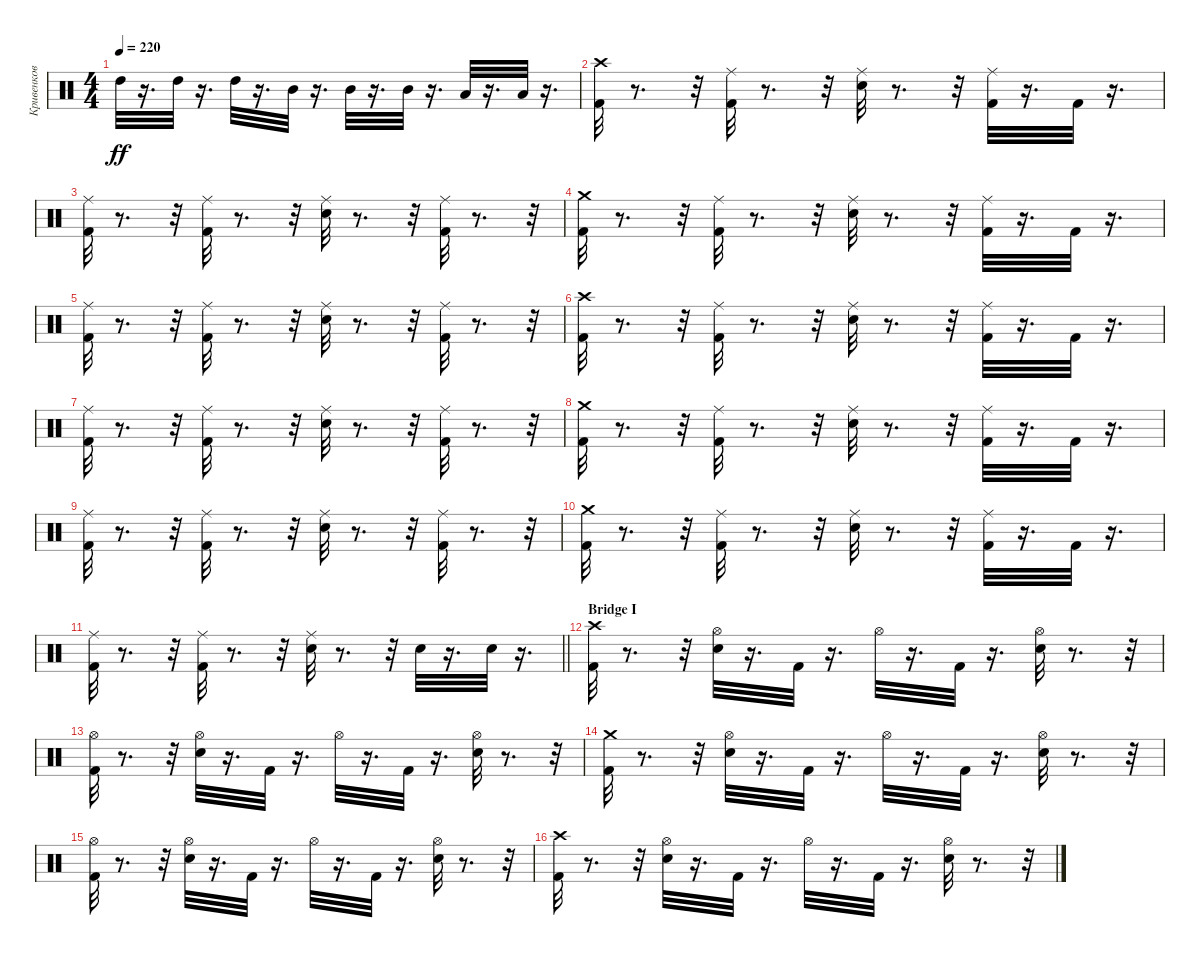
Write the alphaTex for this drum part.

\track ("Кривенков" "Кривенков") {instrument percussion}
\staff {score}
\articulation defaults
\ts (4 4)
\tempo 220
\clef neutral
\ks c "High Tom (hit)".32{dy ff}
r.16{d} "High Tom (hit)".32 r.16{d} "High Tom (hit)".32 r.16{d} "Mid Tom (hit)".32 r.16{d} "Mid Tom (hit)".32 r.16{d} "Mid Tom (hit)".32 r.16{d} "Low Tom (hit)".32 r.16{d} "Low Tom (hit)".32 r.16{d} |
("Crash high (hit)" "Kick (hit) 2").32 r.8{d} r.32 ("Ride (middle)" "Kick (hit) 2").32 r.8{d} r.32 ("Ride (middle)" "Electric Snare (hit)").32 r.8{d} r.32 ("Ride (middle)" "Kick (hit) 2").32 r.16{d} "Kick (hit) 2".32 r.16{d} |
("Ride (middle)" "Kick (hit) 2").32 r.8{d} r.32 ("Ride (middle)" "Kick (hit) 2").32 r.8{d} r.32 ("Ride (middle)" "Electric Snare (hit)").32 r.8{d} r.32 ("Ride (middle)" "Kick (hit) 2").32 r.8{d} r.32 |
("Crash medium (hit)" "Kick (hit) 2").32 r.8{d} r.32 ("Ride (middle)" "Kick (hit) 2").32 r.8{d} r.32 ("Ride (middle)" "Electric Snare (hit)").32 r.8{d} r.32 ("Ride (middle)" "Kick (hit) 2").32 r.16{d} "Kick (hit) 2".32 r.16{d} |
("Ride (middle)" "Kick (hit) 2").32 r.8{d} r.32 ("Ride (middle)" "Kick (hit) 2").32 r.8{d} r.32 ("Ride (middle)" "Electric Snare (hit)").32 r.8{d} r.32 ("Ride (middle)" "Kick (hit) 2").32 r.8{d} r.32 |
("Crash high (hit)" "Kick (hit) 2").32 r.8{d} r.32 ("Ride (middle)" "Kick (hit) 2").32 r.8{d} r.32 ("Ride (middle)" "Electric Snare (hit)").32 r.8{d} r.32 ("Ride (middle)" "Kick (hit) 2").32 r.16{d} "Kick (hit) 2".32 r.16{d} |
("Ride (middle)" "Kick (hit) 2").32 r.8{d} r.32 ("Ride (middle)" "Kick (hit) 2").32 r.8{d} r.32 ("Ride (middle)" "Electric Snare (hit)").32 r.8{d} r.32 ("Ride (middle)" "Kick (hit) 2").32 r.8{d} r.32 |
("Crash medium (hit)" "Kick (hit) 2").32 r.8{d} r.32 ("Ride (middle)" "Kick (hit) 2").32 r.8{d} r.32 ("Ride (middle)" "Electric Snare (hit)").32 r.8{d} r.32 ("Ride (middle)" "Kick (hit) 2").32 r.16{d} "Kick (hit) 2".32 r.16{d} |
("Ride (middle)" "Kick (hit) 2").32 r.8{d} r.32 ("Ride (middle)" "Kick (hit) 2").32 r.8{d} r.32 ("Ride (middle)" "Electric Snare (hit)").32 r.8{d} r.32 ("Ride (middle)" "Kick (hit) 2").32 r.8{d} r.32 |
("Crash medium (hit)" "Kick (hit) 2").32 r.8{d} r.32 ("Ride (middle)" "Kick (hit) 2").32 r.8{d} r.32 ("Ride (middle)" "Electric Snare (hit)").32 r.8{d} r.32 ("Ride (middle)" "Kick (hit) 2").32 r.16{d} "Kick (hit) 2".32 r.16{d} |
\barLineRight lightlight
("Ride (middle)" "Kick (hit) 2").32 r.8{d} r.32 ("Ride (middle)" "Kick (hit) 2").32 r.8{d} r.32 ("Ride (middle)" "Electric Snare (hit)").32 r.8{d} r.32 "Electric Snare (hit)".32 r.16{d} "Electric Snare (hit)".32 r.16{d} |
\section ("" "Bridge I")
("Crash high (hit)" "Kick (hit) 2").32 r.8{d} r.32 ("Hi-Hat (open)" "Electric Snare (hit)").32 r.16{d} "Kick (hit) 2".32 r.16{d} "Hi-Hat (open)".32 r.16{d} "Kick (hit) 2".32 r.16{d} ("Hi-Hat (open)" "Electric Snare (hit)").32 r.8{d} r.32 |
("Kick (hit) 2" "Hi-Hat (open)").32 r.8{d} r.32 ("Electric Snare (hit)" "Hi-Hat (open)").32 r.16{d} "Kick (hit) 2".32 r.16{d} "Hi-Hat (open)".32 r.16{d} "Kick (hit) 2".32 r.16{d} ("Hi-Hat (open)" "Electric Snare (hit)").32 r.8{d} r.32 |
("Crash medium (hit)" "Kick (hit) 2").32 r.8{d} r.32 ("Hi-Hat (open)" "Electric Snare (hit)").32 r.16{d} "Kick (hit) 2".32 r.16{d} "Hi-Hat (open)".32 r.16{d} "Kick (hit) 2".32 r.16{d} ("Hi-Hat (open)" "Electric Snare (hit)").32 r.8{d} r.32 |
("Kick (hit) 2" "Hi-Hat (open)").32 r.8{d} r.32 ("Electric Snare (hit)" "Hi-Hat (open)").32 r.16{d} "Kick (hit) 2".32 r.16{d} "Hi-Hat (open)".32 r.16{d} "Kick (hit) 2".32 r.16{d} ("Hi-Hat (open)" "Electric Snare (hit)").32 r.8{d} r.32 |
("Crash high (hit)" "Kick (hit) 2").32 r.8{d} r.32 ("Hi-Hat (open)" "Electric Snare (hit)").32 r.16{d} "Kick (hit) 2".32 r.16{d} "Hi-Hat (open)".32 r.16{d} "Kick (hit) 2".32 r.16{d} ("Hi-Hat (open)" "Electric Snare (hit)").32 r.8{d} r.32
